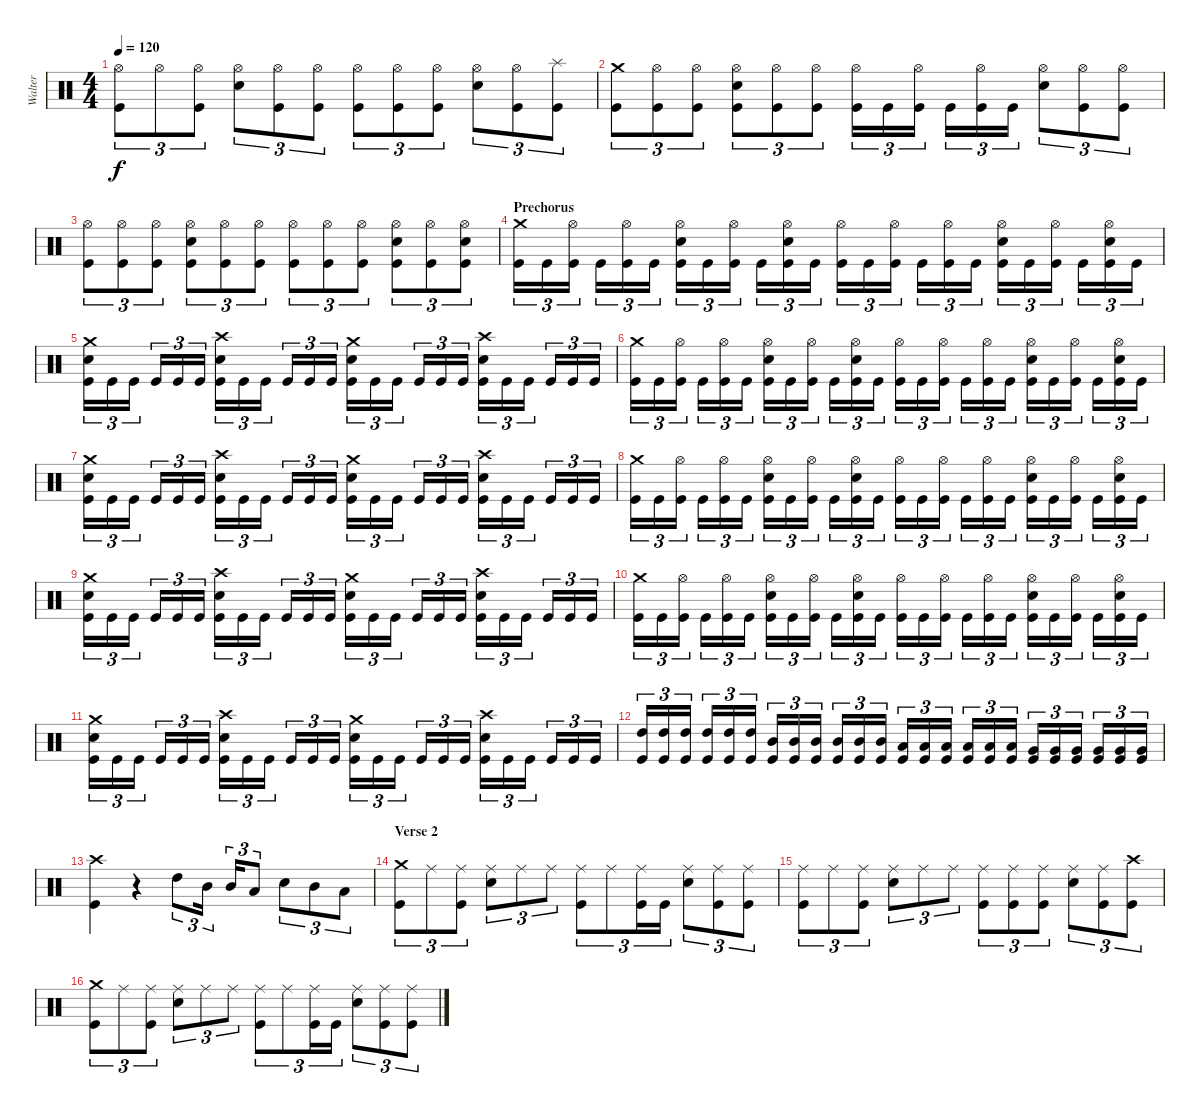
\track ("Walter" "Walter") {instrument percussion}
\staff {score}
\articulation defaults
\ts (4 4)
\tempo 120
\clef neutral
\ks c
("Hi-Hat (open)" "Kick (hit)").8{tu (3 2) dy f} "Hi-Hat (open)".8{tu (3 2)} ("Hi-Hat (open)" "Kick (hit)").8{tu (3 2)} ("Hi-Hat (open)" "Electric Snare (hit)").8{tu (3 2)} ("Hi-Hat (open)" "Kick (hit)").8{tu (3 2)} ("Hi-Hat (open)" "Kick (hit)").8{tu (3 2)} ("Hi-Hat (open)" "Kick (hit)").8{tu (3 2)} ("Hi-Hat (open)" "Kick (hit)").8{tu (3 2)} ("Hi-Hat (open)" "Kick (hit)").8{tu (3 2)} ("Hi-Hat (open)" "Electric Snare (hit)").8{tu (3 2)} ("Hi-Hat (open)" "Kick (hit)").8{tu (3 2)} ("Splash (hit)" "Kick (hit)").8{tu (3 2)} |
("Crash medium (hit)" "Kick (hit)").8{tu (3 2)} ("Hi-Hat (open)" "Kick (hit)").8{tu (3 2)} ("Hi-Hat (open)" "Kick (hit)").8{tu (3 2)} ("Hi-Hat (open)" "Electric Snare (hit)" "Kick (hit)").8{tu (3 2)} ("Hi-Hat (open)" "Kick (hit)").8{tu (3 2)} ("Hi-Hat (open)" "Kick (hit)").8{tu (3 2)} ("Hi-Hat (open)" "Kick (hit)").16{tu (3 2)} "Kick (hit)".16{tu (3 2)} ("Hi-Hat (open)" "Kick (hit)").16{tu (3 2)} "Kick (hit)".16{tu (3 2)} ("Hi-Hat (open)" "Kick (hit)").16{tu (3 2)} "Kick (hit)".16{tu (3 2)} ("Hi-Hat (open)" "Electric Snare (hit)").8{tu (3 2)} ("Hi-Hat (open)" "Kick (hit)").8{tu (3 2)} ("Hi-Hat (open)" "Kick (hit)").8{tu (3 2)} |
("Hi-Hat (open)" "Kick (hit)").8{tu (3 2)} ("Hi-Hat (open)" "Kick (hit)").8{tu (3 2)} ("Hi-Hat (open)" "Kick (hit)").8{tu (3 2)} ("Hi-Hat (open)" "Electric Snare (hit)" "Kick (hit)").8{tu (3 2)} ("Hi-Hat (open)" "Kick (hit)").8{tu (3 2)} ("Hi-Hat (open)" "Kick (hit)").8{tu (3 2)} ("Hi-Hat (open)" "Kick (hit)").8{tu (3 2)} ("Hi-Hat (open)" "Kick (hit)").8{tu (3 2)} ("Hi-Hat (open)" "Kick (hit)").8{tu (3 2)} ("Hi-Hat (open)" "Electric Snare (hit)" "Kick (hit)").8{tu (3 2)} ("Hi-Hat (open)" "Kick (hit)").8{tu (3 2)} ("Hi-Hat (open)" "Electric Snare (hit)" "Kick (hit)").8{tu (3 2)} |
\section ("" "Prechorus")
("Crash medium (hit)" "Kick (hit)").16{tu (3 2)} "Kick (hit)".16{tu (3 2)} ("Hi-Hat (open)" "Kick (hit)").16{tu (3 2)} "Kick (hit)".16{tu (3 2)} ("Hi-Hat (open)" "Kick (hit)").16{tu (3 2)} "Kick (hit)".16{tu (3 2)} ("Hi-Hat (open)" "Electric Snare (hit)" "Kick (hit)").16{tu (3 2)} "Kick (hit)".16{tu (3 2)} ("Hi-Hat (open)" "Kick (hit)").16{tu (3 2)} "Kick (hit)".16{tu (3 2)} ("Hi-Hat (open)" "Electric Snare (hit)" "Kick (hit)").16{tu (3 2)} "Kick (hit)".16{tu (3 2)} ("Hi-Hat (open)" "Kick (hit)").16{tu (3 2)} "Kick (hit)".16{tu (3 2)} ("Hi-Hat (open)" "Kick (hit)").16{tu (3 2)} "Kick (hit)".16{tu (3 2)} ("Hi-Hat (open)" "Kick (hit)").16{tu (3 2)} "Kick (hit)".16{tu (3 2)} ("Hi-Hat (open)" "Electric Snare (hit)" "Kick (hit)").16{tu (3 2)} "Kick (hit)".16{tu (3 2)} ("Hi-Hat (open)" "Kick (hit)").16{tu (3 2)} "Kick (hit)".16{tu (3 2)} ("Hi-Hat (open)" "Electric Snare (hit)" "Kick (hit)").16{tu (3 2)} "Kick (hit)".16{tu (3 2)} |
("Crash medium (hit)" "Electric Snare (hit)" "Kick (hit)").16{tu (3 2)} "Kick (hit)".16{tu (3 2)} "Kick (hit)".16{tu (3 2)} "Kick (hit)".16{tu (3 2)} "Kick (hit)".16{tu (3 2)} "Kick (hit)".16{tu (3 2)} ("Crash high (hit)" "Electric Snare (hit)" "Kick (hit)").16{tu (3 2)} "Kick (hit)".16{tu (3 2)} "Kick (hit)".16{tu (3 2)} "Kick (hit)".16{tu (3 2)} "Kick (hit)".16{tu (3 2)} "Kick (hit)".16{tu (3 2)} ("Crash medium (hit)" "Electric Snare (hit)" "Kick (hit)").16{tu (3 2)} "Kick (hit)".16{tu (3 2)} "Kick (hit)".16{tu (3 2)} "Kick (hit)".16{tu (3 2)} "Kick (hit)".16{tu (3 2)} "Kick (hit)".16{tu (3 2)} ("Crash high (hit)" "Electric Snare (hit)" "Kick (hit)").16{tu (3 2)} "Kick (hit)".16{tu (3 2)} "Kick (hit)".16{tu (3 2)} "Kick (hit)".16{tu (3 2)} "Kick (hit)".16{tu (3 2)} "Kick (hit)".16{tu (3 2)} |
("Crash medium (hit)" "Kick (hit)").16{tu (3 2)} "Kick (hit)".16{tu (3 2)} ("Hi-Hat (open)" "Kick (hit)").16{tu (3 2)} "Kick (hit)".16{tu (3 2)} ("Hi-Hat (open)" "Kick (hit)").16{tu (3 2)} "Kick (hit)".16{tu (3 2)} ("Hi-Hat (open)" "Electric Snare (hit)" "Kick (hit)").16{tu (3 2)} "Kick (hit)".16{tu (3 2)} ("Hi-Hat (open)" "Kick (hit)").16{tu (3 2)} "Kick (hit)".16{tu (3 2)} ("Hi-Hat (open)" "Electric Snare (hit)" "Kick (hit)").16{tu (3 2)} "Kick (hit)".16{tu (3 2)} ("Hi-Hat (open)" "Kick (hit)").16{tu (3 2)} "Kick (hit)".16{tu (3 2)} ("Hi-Hat (open)" "Kick (hit)").16{tu (3 2)} "Kick (hit)".16{tu (3 2)} ("Hi-Hat (open)" "Kick (hit)").16{tu (3 2)} "Kick (hit)".16{tu (3 2)} ("Hi-Hat (open)" "Electric Snare (hit)" "Kick (hit)").16{tu (3 2)} "Kick (hit)".16{tu (3 2)} ("Hi-Hat (open)" "Kick (hit)").16{tu (3 2)} "Kick (hit)".16{tu (3 2)} ("Hi-Hat (open)" "Electric Snare (hit)" "Kick (hit)").16{tu (3 2)} "Kick (hit)".16{tu (3 2)} |
("Crash medium (hit)" "Electric Snare (hit)" "Kick (hit)").16{tu (3 2)} "Kick (hit)".16{tu (3 2)} "Kick (hit)".16{tu (3 2)} "Kick (hit)".16{tu (3 2)} "Kick (hit)".16{tu (3 2)} "Kick (hit)".16{tu (3 2)} ("Crash high (hit)" "Electric Snare (hit)" "Kick (hit)").16{tu (3 2)} "Kick (hit)".16{tu (3 2)} "Kick (hit)".16{tu (3 2)} "Kick (hit)".16{tu (3 2)} "Kick (hit)".16{tu (3 2)} "Kick (hit)".16{tu (3 2)} ("Crash medium (hit)" "Electric Snare (hit)" "Kick (hit)").16{tu (3 2)} "Kick (hit)".16{tu (3 2)} "Kick (hit)".16{tu (3 2)} "Kick (hit)".16{tu (3 2)} "Kick (hit)".16{tu (3 2)} "Kick (hit)".16{tu (3 2)} ("Crash high (hit)" "Electric Snare (hit)" "Kick (hit)").16{tu (3 2)} "Kick (hit)".16{tu (3 2)} "Kick (hit)".16{tu (3 2)} "Kick (hit)".16{tu (3 2)} "Kick (hit)".16{tu (3 2)} "Kick (hit)".16{tu (3 2)} |
("Crash medium (hit)" "Kick (hit)").16{tu (3 2)} "Kick (hit)".16{tu (3 2)} ("Hi-Hat (open)" "Kick (hit)").16{tu (3 2)} "Kick (hit)".16{tu (3 2)} ("Hi-Hat (open)" "Kick (hit)").16{tu (3 2)} "Kick (hit)".16{tu (3 2)} ("Hi-Hat (open)" "Electric Snare (hit)" "Kick (hit)").16{tu (3 2)} "Kick (hit)".16{tu (3 2)} ("Hi-Hat (open)" "Kick (hit)").16{tu (3 2)} "Kick (hit)".16{tu (3 2)} ("Hi-Hat (open)" "Electric Snare (hit)" "Kick (hit)").16{tu (3 2)} "Kick (hit)".16{tu (3 2)} ("Hi-Hat (open)" "Kick (hit)").16{tu (3 2)} "Kick (hit)".16{tu (3 2)} ("Hi-Hat (open)" "Kick (hit)").16{tu (3 2)} "Kick (hit)".16{tu (3 2)} ("Hi-Hat (open)" "Kick (hit)").16{tu (3 2)} "Kick (hit)".16{tu (3 2)} ("Hi-Hat (open)" "Electric Snare (hit)" "Kick (hit)").16{tu (3 2)} "Kick (hit)".16{tu (3 2)} ("Hi-Hat (open)" "Kick (hit)").16{tu (3 2)} "Kick (hit)".16{tu (3 2)} ("Hi-Hat (open)" "Electric Snare (hit)" "Kick (hit)").16{tu (3 2)} "Kick (hit)".16{tu (3 2)} |
("Crash medium (hit)" "Electric Snare (hit)" "Kick (hit)").16{tu (3 2)} "Kick (hit)".16{tu (3 2)} "Kick (hit)".16{tu (3 2)} "Kick (hit)".16{tu (3 2)} "Kick (hit)".16{tu (3 2)} "Kick (hit)".16{tu (3 2)} ("Crash high (hit)" "Electric Snare (hit)" "Kick (hit)").16{tu (3 2)} "Kick (hit)".16{tu (3 2)} "Kick (hit)".16{tu (3 2)} "Kick (hit)".16{tu (3 2)} "Kick (hit)".16{tu (3 2)} "Kick (hit)".16{tu (3 2)} ("Crash medium (hit)" "Electric Snare (hit)" "Kick (hit)").16{tu (3 2)} "Kick (hit)".16{tu (3 2)} "Kick (hit)".16{tu (3 2)} "Kick (hit)".16{tu (3 2)} "Kick (hit)".16{tu (3 2)} "Kick (hit)".16{tu (3 2)} ("Crash high (hit)" "Electric Snare (hit)" "Kick (hit)").16{tu (3 2)} "Kick (hit)".16{tu (3 2)} "Kick (hit)".16{tu (3 2)} "Kick (hit)".16{tu (3 2)} "Kick (hit)".16{tu (3 2)} "Kick (hit)".16{tu (3 2)} |
("Crash medium (hit)" "Kick (hit)").16{tu (3 2)} "Kick (hit)".16{tu (3 2)} ("Hi-Hat (open)" "Kick (hit)").16{tu (3 2)} "Kick (hit)".16{tu (3 2)} ("Hi-Hat (open)" "Kick (hit)").16{tu (3 2)} "Kick (hit)".16{tu (3 2)} ("Hi-Hat (open)" "Electric Snare (hit)" "Kick (hit)").16{tu (3 2)} "Kick (hit)".16{tu (3 2)} ("Hi-Hat (open)" "Kick (hit)").16{tu (3 2)} "Kick (hit)".16{tu (3 2)} ("Hi-Hat (open)" "Electric Snare (hit)" "Kick (hit)").16{tu (3 2)} "Kick (hit)".16{tu (3 2)} ("Hi-Hat (open)" "Kick (hit)").16{tu (3 2)} "Kick (hit)".16{tu (3 2)} ("Hi-Hat (open)" "Kick (hit)").16{tu (3 2)} "Kick (hit)".16{tu (3 2)} ("Hi-Hat (open)" "Kick (hit)").16{tu (3 2)} "Kick (hit)".16{tu (3 2)} ("Hi-Hat (open)" "Electric Snare (hit)" "Kick (hit)").16{tu (3 2)} "Kick (hit)".16{tu (3 2)} ("Hi-Hat (open)" "Kick (hit)").16{tu (3 2)} "Kick (hit)".16{tu (3 2)} ("Hi-Hat (open)" "Electric Snare (hit)" "Kick (hit)").16{tu (3 2)} "Kick (hit)".16{tu (3 2)} |
("Crash medium (hit)" "Electric Snare (hit)" "Kick (hit)").16{tu (3 2)} "Kick (hit)".16{tu (3 2)} "Kick (hit)".16{tu (3 2)} "Kick (hit)".16{tu (3 2)} "Kick (hit)".16{tu (3 2)} "Kick (hit)".16{tu (3 2)} ("Crash high (hit)" "Electric Snare (hit)" "Kick (hit)").16{tu (3 2)} "Kick (hit)".16{tu (3 2)} "Kick (hit)".16{tu (3 2)} "Kick (hit)".16{tu (3 2)} "Kick (hit)".16{tu (3 2)} "Kick (hit)".16{tu (3 2)} ("Crash medium (hit)" "Electric Snare (hit)" "Kick (hit)").16{tu (3 2)} "Kick (hit)".16{tu (3 2)} "Kick (hit)".16{tu (3 2)} "Kick (hit)".16{tu (3 2)} "Kick (hit)".16{tu (3 2)} "Kick (hit)".16{tu (3 2)} ("Crash high (hit)" "Electric Snare (hit)" "Kick (hit)").16{tu (3 2)} "Kick (hit)".16{tu (3 2)} "Kick (hit)".16{tu (3 2)} "Kick (hit)".16{tu (3 2)} "Kick (hit)".16{tu (3 2)} "Kick (hit)".16{tu (3 2)} |
("High Tom (hit)" "Kick (hit)").16{tu (3 2)} ("High Tom (hit)" "Kick (hit)").16{tu (3 2)} ("High Tom (hit)" "Kick (hit)").16{tu (3 2)} ("High Tom (hit)" "Kick (hit)").16{tu (3 2)} ("High Tom (hit)" "Kick (hit)").16{tu (3 2)} ("High Tom (hit)" "Kick (hit)").16{tu (3 2)} ("Mid Tom (hit)" "Kick (hit)").16{tu (3 2)} ("Mid Tom (hit)" "Kick (hit)").16{tu (3 2)} ("Mid Tom (hit)" "Kick (hit)").16{tu (3 2)} ("Mid Tom (hit)" "Kick (hit)").16{tu (3 2)} ("Mid Tom (hit)" "Kick (hit)").16{tu (3 2)} ("Mid Tom (hit)" "Kick (hit)").16{tu (3 2)} ("Low Tom (hit)" "Kick (hit)").16{tu (3 2)} ("Low Tom (hit)" "Kick (hit)").16{tu (3 2)} ("Low Tom (hit)" "Kick (hit)").16{tu (3 2)} ("Low Tom (hit)" "Kick (hit)").16{tu (3 2)} ("Low Tom (hit)" "Kick (hit)").16{tu (3 2)} ("Low Tom (hit)" "Kick (hit)").16{tu (3 2)} ("Very Low Tom (hit)" "Kick (hit)").16{tu (3 2)} ("Very Low Tom (hit)" "Kick (hit)").16{tu (3 2)} ("Very Low Tom (hit)" "Kick (hit)").16{tu (3 2)} ("Very Low Tom (hit)" "Kick (hit)").16{tu (3 2)} ("Very Low Tom (hit)" "Kick (hit)").16{tu (3 2)} ("Very Low Tom (hit)" "Kick (hit)").16{tu (3 2)} |
("Crash high (hit)" "Kick (hit)").4 r.4 "High Tom (hit)".8{tu (3 2)} "Mid Tom (hit)".16{tu (3 2)} "Mid Tom (hit)".16{tu (3 2)} "Low Tom (hit)".8{tu (3 2)} "Electric Snare (hit)".8{tu (3 2)} "Mid Tom (hit)".8{tu (3 2)} "Low Tom (hit)".8{tu (3 2)} |
\section ("" "Verse 2")
("Crash medium (hit)" "Kick (hit)").8{tu (3 2)} "Ride (middle)".8{tu (3 2)} ("Ride (middle)" "Kick (hit)").8{tu (3 2)} ("Electric Snare (hit)" "Ride (middle)").8{tu (3 2)} "Ride (middle)".8{tu (3 2)} "Ride (middle)".8{tu (3 2)} ("Ride (middle)" "Kick (hit)").8{tu (3 2)} "Ride (middle)".8{tu (3 2)} ("Ride (middle)" "Kick (hit)").16{tu (3 2)} "Kick (hit)".16{tu (3 2)} ("Electric Snare (hit)" "Ride (middle)").8{tu (3 2)} ("Ride (middle)" "Kick (hit)").8{tu (3 2)} ("Ride (middle)" "Kick (hit)").8{tu (3 2)} |
("Ride (middle)" "Kick (hit)").8{tu (3 2)} "Ride (middle)".8{tu (3 2)} ("Ride (middle)" "Kick (hit)").8{tu (3 2)} ("Electric Snare (hit)" "Ride (middle)").8{tu (3 2)} "Ride (middle)".8{tu (3 2)} "Ride (middle)".8{tu (3 2)} ("Ride (middle)" "Kick (hit)").8{tu (3 2)} ("Ride (middle)" "Kick (hit)").8{tu (3 2)} ("Ride (middle)" "Kick (hit)").8{tu (3 2)} ("Electric Snare (hit)" "Ride (middle)").8{tu (3 2)} ("Ride (middle)" "Kick (hit)").8{tu (3 2)} ("Crash high (hit)" "Kick (hit)").8{tu (3 2)} |
("Crash medium (hit)" "Kick (hit)").8{tu (3 2)} "Ride (middle)".8{tu (3 2)} ("Ride (middle)" "Kick (hit)").8{tu (3 2)} ("Electric Snare (hit)" "Ride (middle)").8{tu (3 2)} "Ride (middle)".8{tu (3 2)} "Ride (middle)".8{tu (3 2)} ("Ride (middle)" "Kick (hit)").8{tu (3 2)} "Ride (middle)".8{tu (3 2)} ("Ride (middle)" "Kick (hit)").16{tu (3 2)} "Kick (hit)".16{tu (3 2)} ("Electric Snare (hit)" "Ride (middle)").8{tu (3 2)} ("Ride (middle)" "Kick (hit)").8{tu (3 2)} ("Ride (middle)" "Kick (hit)").8{tu (3 2)}
